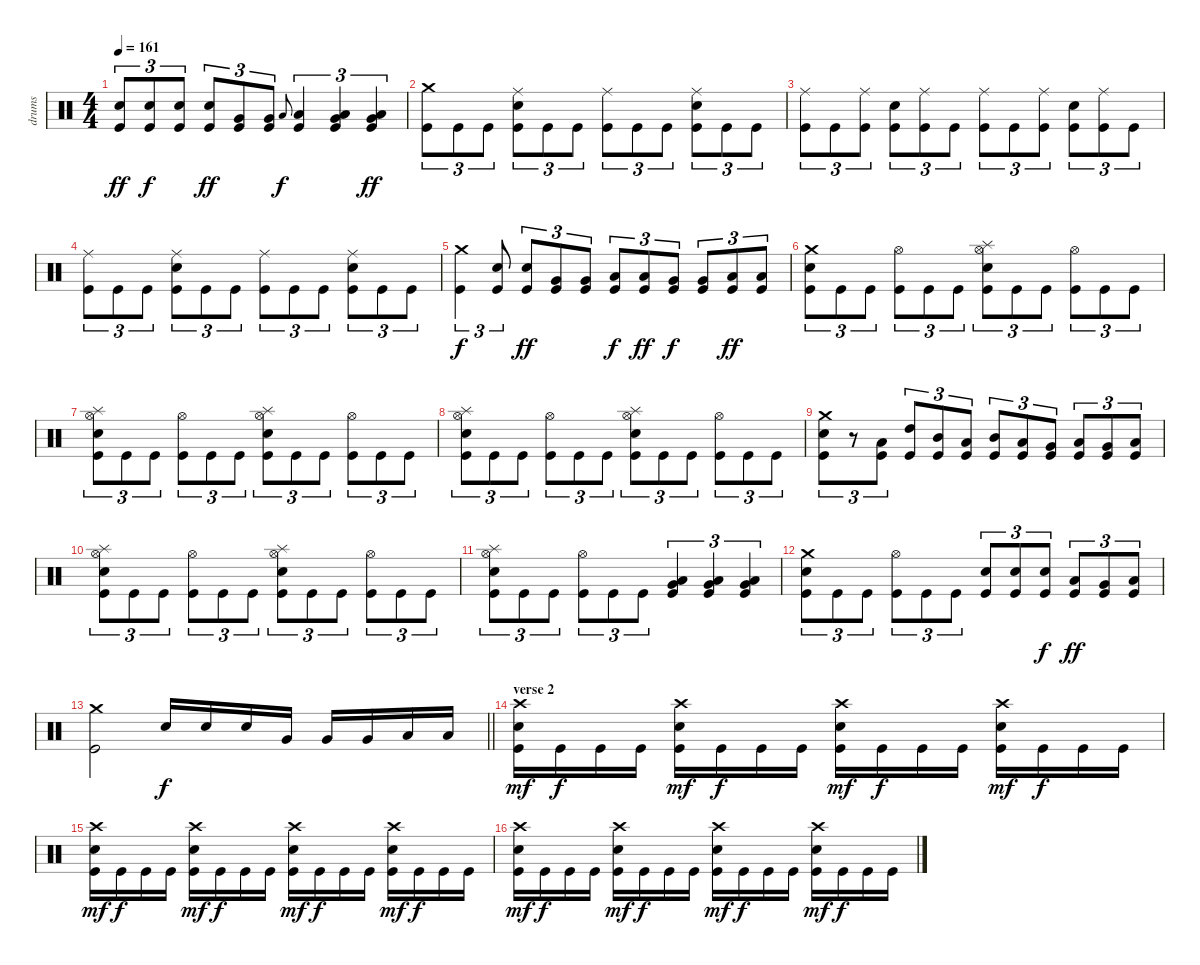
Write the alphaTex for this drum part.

\track ("drums" "drums") {instrument percussion}
\staff {score}
\articulation defaults
\ts (4 4)
\tempo 161
\clef neutral
\ks c
("Electric Snare (hit)" "Kick (hit)").8{tu (3 2) dy ff} ("Electric Snare (hit)" "Kick (hit)").8{tu (3 2) dy f} ("Electric Snare (hit)" "Kick (hit)").8{tu (3 2)} ("Electric Snare (hit)" "Kick (hit)").8{tu (3 2) dy ff} ("Very Low Tom (hit)" "Kick (hit)").8{tu (3 2)} ("Very Low Tom (hit)" "Kick (hit)").8{tu (3 2)} "Low Floor Tom (hit)".8{gr onbeat dy f} ("Low Floor Tom (hit)" "Kick (hit)").4{tu (3 2)} ("Very Low Tom (hit)" "Low Floor Tom (hit)" "Kick (hit)").4{tu (3 2)} ("Very Low Tom (hit)" "Low Floor Tom (hit)" "Kick (hit)").4{tu (3 2) dy ff} |
("Crash medium (hit)" "Kick (hit)").8{tu (3 2)} "Kick (hit)".8{tu (3 2)} "Kick (hit)".8{tu (3 2)} ("Ride (middle)" "Electric Snare (hit)" "Kick (hit)").8{tu (3 2)} "Kick (hit)".8{tu (3 2)} "Kick (hit)".8{tu (3 2)} ("Ride (middle)" "Kick (hit)").8{tu (3 2)} "Kick (hit)".8{tu (3 2)} "Kick (hit)".8{tu (3 2)} ("Ride (middle)" "Electric Snare (hit)" "Kick (hit)").8{tu (3 2)} "Kick (hit)".8{tu (3 2)} "Kick (hit)".8{tu (3 2)} |
("Ride (middle)" "Kick (hit)").8{tu (3 2)} "Kick (hit)".8{tu (3 2)} ("Ride (middle)" "Kick (hit)").8{tu (3 2)} ("Electric Snare (hit)" "Kick (hit)").8{tu (3 2)} ("Ride (middle)" "Kick (hit)").8{tu (3 2)} "Kick (hit)".8{tu (3 2)} ("Ride (middle)" "Kick (hit)").8{tu (3 2)} "Kick (hit)".8{tu (3 2)} ("Ride (middle)" "Kick (hit)").8{tu (3 2)} ("Electric Snare (hit)" "Kick (hit)").8{tu (3 2)} ("Ride (middle)" "Kick (hit)").8{tu (3 2)} "Kick (hit)".8{tu (3 2)} |
("Ride (middle)" "Kick (hit)").8{tu (3 2)} "Kick (hit)".8{tu (3 2)} "Kick (hit)".8{tu (3 2)} ("Ride (middle)" "Electric Snare (hit)" "Kick (hit)").8{tu (3 2)} "Kick (hit)".8{tu (3 2)} "Kick (hit)".8{tu (3 2)} ("Ride (middle)" "Kick (hit)").8{tu (3 2)} "Kick (hit)".8{tu (3 2)} "Kick (hit)".8{tu (3 2)} ("Ride (middle)" "Electric Snare (hit)" "Kick (hit)").8{tu (3 2)} "Kick (hit)".8{tu (3 2)} "Kick (hit)".8{tu (3 2)} |
("Crash medium (hit)" "Kick (hit)").4{tu (3 2) dy f} ("Electric Snare (hit)" "Kick (hit)").8{tu (3 2)} ("Electric Snare (hit)" "Kick (hit)").8{tu (3 2) dy ff} ("Very Low Tom (hit)" "Kick (hit)").8{tu (3 2)} ("Very Low Tom (hit)" "Kick (hit)").8{tu (3 2)} ("Low Tom (hit)" "Kick (hit)").8{tu (3 2) dy f} ("Low Tom (hit)" "Kick (hit)").8{tu (3 2) dy ff} ("Very Low Tom (hit)" "Kick (hit)").8{tu (3 2) dy f} ("Very Low Tom (hit)" "Kick (hit)").8{tu (3 2)} ("Low Floor Tom (hit)" "Kick (hit)").8{tu (3 2) dy ff} ("Low Floor Tom (hit)" "Kick (hit)").8{tu (3 2)} |
("Crash medium (hit)" "Electric Snare (hit)" "Kick (hit)").8{tu (3 2)} "Kick (hit)".8{tu (3 2)} "Kick (hit)".8{tu (3 2)} ("Hi-Hat (open)" "Kick (hit)").8{tu (3 2)} "Kick (hit)".8{tu (3 2)} "Kick (hit)".8{tu (3 2)} ("Splash (hit)" "Hi-Hat (open)" "Electric Snare (hit)" "Kick (hit)").8{tu (3 2)} "Kick (hit)".8{tu (3 2)} "Kick (hit)".8{tu (3 2)} ("Hi-Hat (open)" "Kick (hit)").8{tu (3 2)} "Kick (hit)".8{tu (3 2)} "Kick (hit)".8{tu (3 2)} |
("Splash (hit)" "Hi-Hat (open)" "Electric Snare (hit)" "Kick (hit)").8{tu (3 2)} "Kick (hit)".8{tu (3 2)} "Kick (hit)".8{tu (3 2)} ("Hi-Hat (open)" "Kick (hit)").8{tu (3 2)} "Kick (hit)".8{tu (3 2)} "Kick (hit)".8{tu (3 2)} ("Splash (hit)" "Hi-Hat (open)" "Electric Snare (hit)" "Kick (hit)").8{tu (3 2)} "Kick (hit)".8{tu (3 2)} "Kick (hit)".8{tu (3 2)} ("Hi-Hat (open)" "Kick (hit)").8{tu (3 2)} "Kick (hit)".8{tu (3 2)} "Kick (hit)".8{tu (3 2)} |
("Splash (hit)" "Hi-Hat (open)" "Electric Snare (hit)" "Kick (hit)").8{tu (3 2)} "Kick (hit)".8{tu (3 2)} "Kick (hit)".8{tu (3 2)} ("Hi-Hat (open)" "Kick (hit)").8{tu (3 2)} "Kick (hit)".8{tu (3 2)} "Kick (hit)".8{tu (3 2)} ("Splash (hit)" "Hi-Hat (open)" "Electric Snare (hit)" "Kick (hit)").8{tu (3 2)} "Kick (hit)".8{tu (3 2)} "Kick (hit)".8{tu (3 2)} ("Hi-Hat (open)" "Kick (hit)").8{tu (3 2)} "Kick (hit)".8{tu (3 2)} "Kick (hit)".8{tu (3 2)} |
("Crash medium (hit)" "Electric Snare (hit)" "Kick (hit)").8{tu (3 2)} r.8{tu (3 2)} ("Low Tom (hit)" "Kick (hit)").8{tu (3 2)} ("High Tom (hit)" "Kick (hit)").8{tu (3 2)} ("Mid Tom (hit)" "Kick (hit)").8{tu (3 2)} ("Low Tom (hit)" "Kick (hit)").8{tu (3 2)} ("Mid Tom (hit)" "Kick (hit)").8{tu (3 2)} ("Low Tom (hit)" "Kick (hit)").8{tu (3 2)} ("Very Low Tom (hit)" "Kick (hit)").8{tu (3 2)} ("Low Tom (hit)" "Kick (hit)").8{tu (3 2)} ("Very Low Tom (hit)" "Kick (hit)").8{tu (3 2)} ("Low Floor Tom (hit)" "Kick (hit)").8{tu (3 2)} |
("Splash (hit)" "Hi-Hat (open)" "Electric Snare (hit)" "Kick (hit)").8{tu (3 2)} "Kick (hit)".8{tu (3 2)} "Kick (hit)".8{tu (3 2)} ("Hi-Hat (open)" "Kick (hit)").8{tu (3 2)} "Kick (hit)".8{tu (3 2)} "Kick (hit)".8{tu (3 2)} ("Splash (hit)" "Hi-Hat (open)" "Electric Snare (hit)" "Kick (hit)").8{tu (3 2)} "Kick (hit)".8{tu (3 2)} "Kick (hit)".8{tu (3 2)} ("Hi-Hat (open)" "Kick (hit)").8{tu (3 2)} "Kick (hit)".8{tu (3 2)} "Kick (hit)".8{tu (3 2)} |
("Splash (hit)" "Hi-Hat (open)" "Electric Snare (hit)" "Kick (hit)").8{tu (3 2)} "Kick (hit)".8{tu (3 2)} "Kick (hit)".8{tu (3 2)} ("Hi-Hat (open)" "Kick (hit)").8{tu (3 2)} "Kick (hit)".8{tu (3 2)} "Kick (hit)".8{tu (3 2)} ("Very Low Tom (hit)" "Low Floor Tom (hit)" "Kick (hit)").4{tu (3 2)} ("Very Low Tom (hit)" "Low Floor Tom (hit)" "Kick (hit)").4{tu (3 2)} ("Very Low Tom (hit)" "Low Floor Tom (hit)" "Kick (hit)").4{tu (3 2)} |
("Crash medium (hit)" "Electric Snare (hit)" "Kick (hit)").8{tu (3 2)} "Kick (hit)".8{tu (3 2)} "Kick (hit)".8{tu (3 2)} ("Hi-Hat (open)" "Kick (hit)").8{tu (3 2)} "Kick (hit)".8{tu (3 2)} "Kick (hit)".8{tu (3 2)} ("Electric Snare (hit)" "Kick (hit)").8{tu (3 2)} ("Electric Snare (hit)" "Kick (hit)").8{tu (3 2)} ("Electric Snare (hit)" "Kick (hit)").8{tu (3 2) dy f} ("Low Tom (hit)" "Kick (hit)").8{tu (3 2) dy ff} ("Very Low Tom (hit)" "Kick (hit)").8{tu (3 2)} ("Low Floor Tom (hit)" "Kick (hit)").8{tu (3 2)} |
\barLineRight lightlight
("Crash medium (hit)" "Kick (hit)").2 "Electric Snare (hit)".16{dy f} "Electric Snare (hit)".16 "Electric Snare (hit)".16 "Very Low Tom (hit)".16 "Very Low Tom (hit)".16 "Very Low Tom (hit)".16 "Low Floor Tom (hit)".16 "Low Floor Tom (hit)".16 |
\section ("" "verse 2")
("Crash high (hit)" "Electric Snare (hit)" "Kick (hit)").16{dy mf} "Kick (hit)".16{dy f} "Kick (hit)".16 "Kick (hit)".16 ("Crash high (hit)" "Electric Snare (hit)" "Kick (hit)").16{dy mf} "Kick (hit)".16{dy f} "Kick (hit)".16 "Kick (hit)".16 ("Crash high (hit)" "Electric Snare (hit)" "Kick (hit)").16{dy mf} "Kick (hit)".16{dy f} "Kick (hit)".16 "Kick (hit)".16 ("Crash high (hit)" "Electric Snare (hit)" "Kick (hit)").16{dy mf} "Kick (hit)".16{dy f} "Kick (hit)".16 "Kick (hit)".16 |
("Crash high (hit)" "Electric Snare (hit)" "Kick (hit)").16{dy mf} "Kick (hit)".16{dy f} "Kick (hit)".16 "Kick (hit)".16 ("Crash high (hit)" "Electric Snare (hit)" "Kick (hit)").16{dy mf} "Kick (hit)".16{dy f} "Kick (hit)".16 "Kick (hit)".16 ("Crash high (hit)" "Electric Snare (hit)" "Kick (hit)").16{dy mf} "Kick (hit)".16{dy f} "Kick (hit)".16 "Kick (hit)".16 ("Crash high (hit)" "Electric Snare (hit)" "Kick (hit)").16{dy mf} "Kick (hit)".16{dy f} "Kick (hit)".16 "Kick (hit)".16 |
("Crash high (hit)" "Electric Snare (hit)" "Kick (hit)").16{dy mf} "Kick (hit)".16{dy f} "Kick (hit)".16 "Kick (hit)".16 ("Crash high (hit)" "Electric Snare (hit)" "Kick (hit)").16{dy mf} "Kick (hit)".16{dy f} "Kick (hit)".16 "Kick (hit)".16 ("Crash high (hit)" "Electric Snare (hit)" "Kick (hit)").16{dy mf} "Kick (hit)".16{dy f} "Kick (hit)".16 "Kick (hit)".16 ("Crash high (hit)" "Electric Snare (hit)" "Kick (hit)").16{dy mf} "Kick (hit)".16{dy f} "Kick (hit)".16 "Kick (hit)".16
